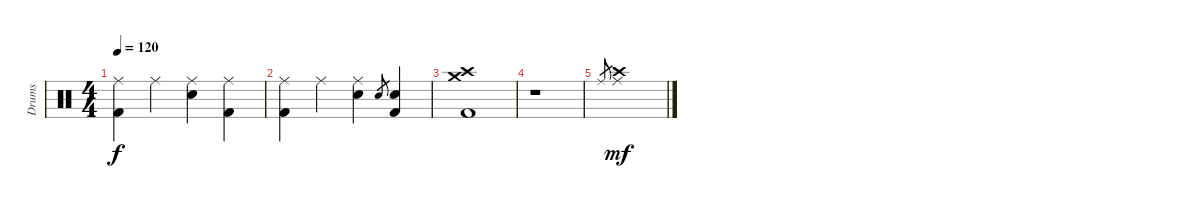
\track ("Drums" "Drums") {instrument percussion}
\staff {score}
\articulation defaults
\ts (4 4)
\tempo 120
\clef neutral
\ks c
("Ride (middle)" "Kick (hit) 2").4{dy f} "Ride (middle)".4 ("Ride (middle)" "Electric Snare (hit)").4 ("Ride (middle)" "Kick (hit) 2").4 |
("Ride (middle)" "Kick (hit) 2").4 "Ride (middle)".4 ("Ride (middle)" "Electric Snare (hit)").4 "Electric Snare (hit)".8{gr} ("Electric Snare (hit)" "Kick (hit) 2").4 |
("Crash high (hit)" "Kick (hit) 2" "Crash medium (hit)").1 |
r.1 |
"Ride (middle)".8{gr} ("Ride (middle)" "Crash high (hit)").1{dy mf}
